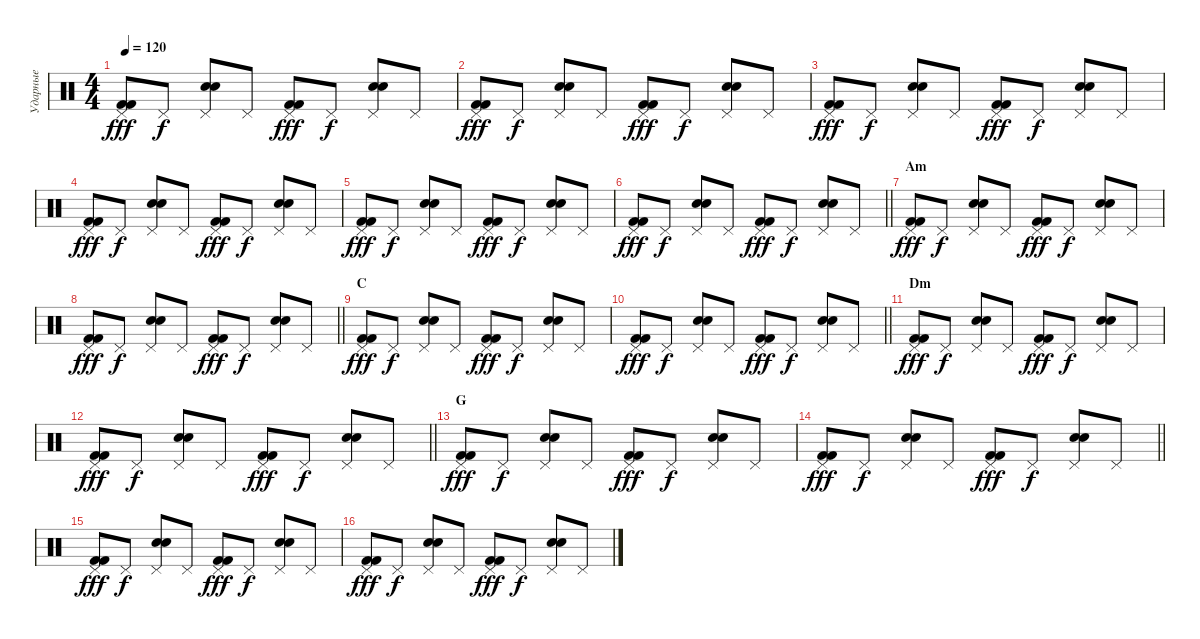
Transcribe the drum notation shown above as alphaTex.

\track ("Ударные" "Ударные") {solo instrument percussion}
\staff {score}
\articulation defaults
\ts (4 4)
\tempo 120
\clef neutral
\ks c
("Kick (hit) 2" "Kick (hit) 2" "Pedal Hi-Hat (hit)").8{dy fff} "Pedal Hi-Hat (hit)".8{dy f} ("Electric Snare (hit)" "Electric Snare (hit)" "Pedal Hi-Hat (hit)").8 "Pedal Hi-Hat (hit)".8 ("Kick (hit) 2" "Kick (hit) 2" "Pedal Hi-Hat (hit)").8{dy fff} "Pedal Hi-Hat (hit)".8{dy f} ("Electric Snare (hit)" "Electric Snare (hit)" "Pedal Hi-Hat (hit)").8 "Pedal Hi-Hat (hit)".8 |
("Kick (hit) 2" "Kick (hit) 2" "Pedal Hi-Hat (hit)").8{dy fff} "Pedal Hi-Hat (hit)".8{dy f} ("Electric Snare (hit)" "Electric Snare (hit)" "Pedal Hi-Hat (hit)").8 "Pedal Hi-Hat (hit)".8 ("Kick (hit) 2" "Kick (hit) 2" "Pedal Hi-Hat (hit)").8{dy fff} "Pedal Hi-Hat (hit)".8{dy f} ("Electric Snare (hit)" "Electric Snare (hit)" "Pedal Hi-Hat (hit)").8 "Pedal Hi-Hat (hit)".8 |
("Kick (hit) 2" "Kick (hit) 2" "Pedal Hi-Hat (hit)").8{dy fff} "Pedal Hi-Hat (hit)".8{dy f} ("Electric Snare (hit)" "Electric Snare (hit)" "Pedal Hi-Hat (hit)").8 "Pedal Hi-Hat (hit)".8 ("Kick (hit) 2" "Kick (hit) 2" "Pedal Hi-Hat (hit)").8{dy fff} "Pedal Hi-Hat (hit)".8{dy f} ("Electric Snare (hit)" "Electric Snare (hit)" "Pedal Hi-Hat (hit)").8 "Pedal Hi-Hat (hit)".8 |
("Kick (hit) 2" "Kick (hit) 2" "Pedal Hi-Hat (hit)").8{dy fff} "Pedal Hi-Hat (hit)".8{dy f} ("Electric Snare (hit)" "Electric Snare (hit)" "Pedal Hi-Hat (hit)").8 "Pedal Hi-Hat (hit)".8 ("Kick (hit) 2" "Kick (hit) 2" "Pedal Hi-Hat (hit)").8{dy fff} "Pedal Hi-Hat (hit)".8{dy f} ("Electric Snare (hit)" "Electric Snare (hit)" "Pedal Hi-Hat (hit)").8 "Pedal Hi-Hat (hit)".8 |
("Kick (hit) 2" "Kick (hit) 2" "Pedal Hi-Hat (hit)").8{dy fff} "Pedal Hi-Hat (hit)".8{dy f} ("Electric Snare (hit)" "Electric Snare (hit)" "Pedal Hi-Hat (hit)").8 "Pedal Hi-Hat (hit)".8 ("Kick (hit) 2" "Kick (hit) 2" "Pedal Hi-Hat (hit)").8{dy fff} "Pedal Hi-Hat (hit)".8{dy f} ("Electric Snare (hit)" "Electric Snare (hit)" "Pedal Hi-Hat (hit)").8 "Pedal Hi-Hat (hit)".8 |
\barLineRight lightlight
("Kick (hit) 2" "Kick (hit) 2" "Pedal Hi-Hat (hit)").8{dy fff} "Pedal Hi-Hat (hit)".8{dy f} ("Electric Snare (hit)" "Electric Snare (hit)" "Pedal Hi-Hat (hit)").8 "Pedal Hi-Hat (hit)".8 ("Kick (hit) 2" "Kick (hit) 2" "Pedal Hi-Hat (hit)").8{dy fff} "Pedal Hi-Hat (hit)".8{dy f} ("Electric Snare (hit)" "Electric Snare (hit)" "Pedal Hi-Hat (hit)").8 "Pedal Hi-Hat (hit)".8 |
\section ("" "Am")
("Kick (hit) 2" "Kick (hit) 2" "Pedal Hi-Hat (hit)").8{dy fff} "Pedal Hi-Hat (hit)".8{dy f} ("Electric Snare (hit)" "Electric Snare (hit)" "Pedal Hi-Hat (hit)").8 "Pedal Hi-Hat (hit)".8 ("Kick (hit) 2" "Kick (hit) 2" "Pedal Hi-Hat (hit)").8{dy fff} "Pedal Hi-Hat (hit)".8{dy f} ("Electric Snare (hit)" "Electric Snare (hit)" "Pedal Hi-Hat (hit)").8 "Pedal Hi-Hat (hit)".8 |
\barLineRight lightlight
("Kick (hit) 2" "Kick (hit) 2" "Pedal Hi-Hat (hit)").8{dy fff} "Pedal Hi-Hat (hit)".8{dy f} ("Electric Snare (hit)" "Electric Snare (hit)" "Pedal Hi-Hat (hit)").8 "Pedal Hi-Hat (hit)".8 ("Kick (hit) 2" "Kick (hit) 2" "Pedal Hi-Hat (hit)").8{dy fff} "Pedal Hi-Hat (hit)".8{dy f} ("Electric Snare (hit)" "Electric Snare (hit)" "Pedal Hi-Hat (hit)").8 "Pedal Hi-Hat (hit)".8 |
\section ("" "C")
("Kick (hit) 2" "Kick (hit) 2" "Pedal Hi-Hat (hit)").8{dy fff} "Pedal Hi-Hat (hit)".8{dy f} ("Electric Snare (hit)" "Electric Snare (hit)" "Pedal Hi-Hat (hit)").8 "Pedal Hi-Hat (hit)".8 ("Kick (hit) 2" "Kick (hit) 2" "Pedal Hi-Hat (hit)").8{dy fff} "Pedal Hi-Hat (hit)".8{dy f} ("Electric Snare (hit)" "Electric Snare (hit)" "Pedal Hi-Hat (hit)").8 "Pedal Hi-Hat (hit)".8 |
\barLineRight lightlight
("Kick (hit) 2" "Kick (hit) 2" "Pedal Hi-Hat (hit)").8{dy fff} "Pedal Hi-Hat (hit)".8{dy f} ("Electric Snare (hit)" "Electric Snare (hit)" "Pedal Hi-Hat (hit)").8 "Pedal Hi-Hat (hit)".8 ("Kick (hit) 2" "Kick (hit) 2" "Pedal Hi-Hat (hit)").8{dy fff} "Pedal Hi-Hat (hit)".8{dy f} ("Electric Snare (hit)" "Electric Snare (hit)" "Pedal Hi-Hat (hit)").8 "Pedal Hi-Hat (hit)".8 |
\section ("" "Dm")
("Kick (hit) 2" "Kick (hit) 2" "Pedal Hi-Hat (hit)").8{dy fff} "Pedal Hi-Hat (hit)".8{dy f} ("Electric Snare (hit)" "Electric Snare (hit)" "Pedal Hi-Hat (hit)").8 "Pedal Hi-Hat (hit)".8 ("Kick (hit) 2" "Kick (hit) 2" "Pedal Hi-Hat (hit)").8{dy fff} "Pedal Hi-Hat (hit)".8{dy f} ("Electric Snare (hit)" "Electric Snare (hit)" "Pedal Hi-Hat (hit)").8 "Pedal Hi-Hat (hit)".8 |
\barLineRight lightlight
("Kick (hit) 2" "Kick (hit) 2" "Pedal Hi-Hat (hit)").8{dy fff} "Pedal Hi-Hat (hit)".8{dy f} ("Electric Snare (hit)" "Electric Snare (hit)" "Pedal Hi-Hat (hit)").8 "Pedal Hi-Hat (hit)".8 ("Kick (hit) 2" "Kick (hit) 2" "Pedal Hi-Hat (hit)").8{dy fff} "Pedal Hi-Hat (hit)".8{dy f} ("Electric Snare (hit)" "Electric Snare (hit)" "Pedal Hi-Hat (hit)").8 "Pedal Hi-Hat (hit)".8 |
\section ("" "G")
("Kick (hit) 2" "Kick (hit) 2" "Pedal Hi-Hat (hit)").8{dy fff} "Pedal Hi-Hat (hit)".8{dy f} ("Electric Snare (hit)" "Electric Snare (hit)" "Pedal Hi-Hat (hit)").8 "Pedal Hi-Hat (hit)".8 ("Kick (hit) 2" "Kick (hit) 2" "Pedal Hi-Hat (hit)").8{dy fff} "Pedal Hi-Hat (hit)".8{dy f} ("Electric Snare (hit)" "Electric Snare (hit)" "Pedal Hi-Hat (hit)").8 "Pedal Hi-Hat (hit)".8 |
\barLineRight lightlight
("Kick (hit) 2" "Kick (hit) 2" "Pedal Hi-Hat (hit)").8{dy fff} "Pedal Hi-Hat (hit)".8{dy f} ("Electric Snare (hit)" "Electric Snare (hit)" "Pedal Hi-Hat (hit)").8 "Pedal Hi-Hat (hit)".8 ("Kick (hit) 2" "Kick (hit) 2" "Pedal Hi-Hat (hit)").8{dy fff} "Pedal Hi-Hat (hit)".8{dy f} ("Electric Snare (hit)" "Electric Snare (hit)" "Pedal Hi-Hat (hit)").8 "Pedal Hi-Hat (hit)".8 |
("Kick (hit) 2" "Kick (hit) 2" "Pedal Hi-Hat (hit)").8{dy fff} "Pedal Hi-Hat (hit)".8{dy f} ("Electric Snare (hit)" "Electric Snare (hit)" "Pedal Hi-Hat (hit)").8 "Pedal Hi-Hat (hit)".8 ("Kick (hit) 2" "Kick (hit) 2" "Pedal Hi-Hat (hit)").8{dy fff} "Pedal Hi-Hat (hit)".8{dy f} ("Electric Snare (hit)" "Electric Snare (hit)" "Pedal Hi-Hat (hit)").8 "Pedal Hi-Hat (hit)".8 |
("Kick (hit) 2" "Kick (hit) 2" "Pedal Hi-Hat (hit)").8{dy fff} "Pedal Hi-Hat (hit)".8{dy f} ("Electric Snare (hit)" "Electric Snare (hit)" "Pedal Hi-Hat (hit)").8 "Pedal Hi-Hat (hit)".8 ("Kick (hit) 2" "Kick (hit) 2" "Pedal Hi-Hat (hit)").8{dy fff} "Pedal Hi-Hat (hit)".8{dy f} ("Electric Snare (hit)" "Electric Snare (hit)" "Pedal Hi-Hat (hit)").8 "Pedal Hi-Hat (hit)".8
